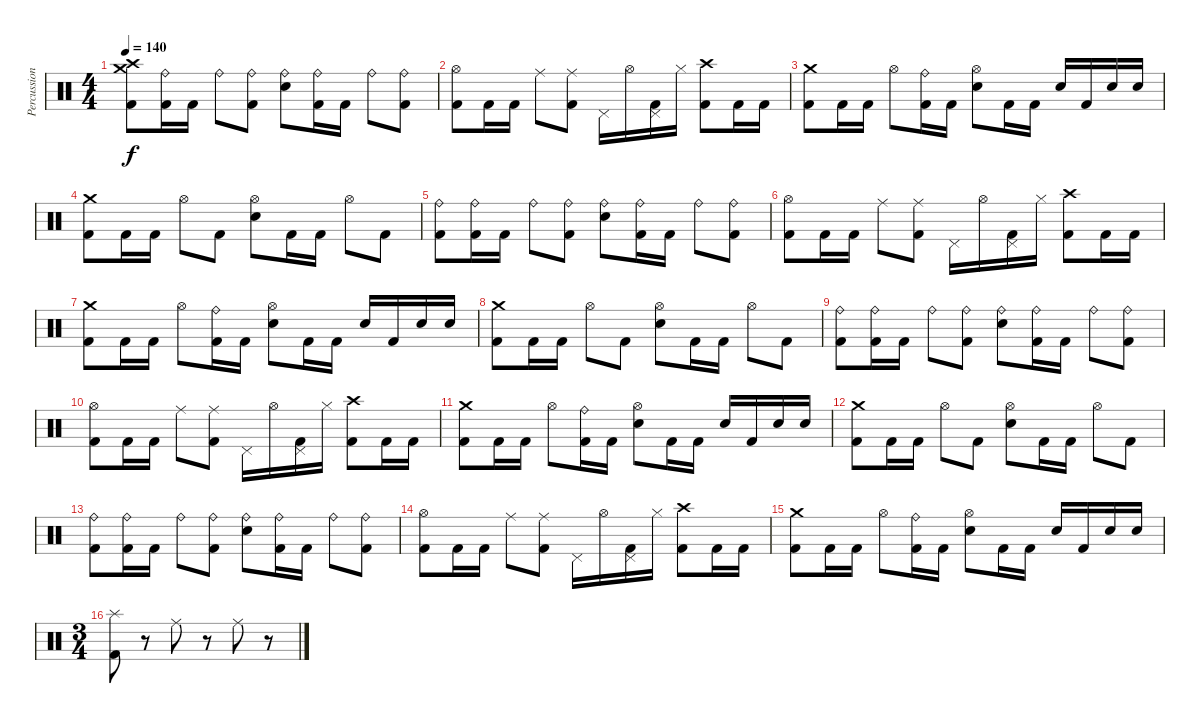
\track ("Percussion" "Percussion") {instrument percussion}
\staff {score}
\articulation defaults
\ts (4 4)
\tempo 140
\clef neutral
\ks c
("Crash high (hit)" "Crash medium (hit)" "Kick (hit) 2").8{dy f} ("Ride (bell)" "Kick (hit) 2").16 "Kick (hit) 2".16 "Ride (bell)".8 ("Ride (bell)" "Kick (hit) 2").8 ("Ride (bell)" "Electric Snare (hit)").8 ("Ride (bell)" "Kick (hit) 2").16 "Kick (hit) 2".16 "Ride (bell)".8 ("Ride (bell)" "Kick (hit) 2").8 |
("Hi-Hat (open)" "Kick (hit) 2").8 "Kick (hit) 2".16 "Kick (hit) 2".16 "Ride (middle)".8 ("Ride (middle)" "Kick (hit) 2").8 "Pedal Hi-Hat (hit)".16 "Hi-Hat (open)".16 ("Pedal Hi-Hat (hit)" "Kick (hit) 2").16 "Hi-Hat (closed)".16 ("Crash high (hit)" "Kick (hit) 2").8 "Kick (hit) 2".16 "Kick (hit) 2".16 |
("Crash medium (hit)" "Kick (hit) 2").8 "Kick (hit) 2".16 "Kick (hit) 2".16 "Hi-Hat (open)".8 ("Ride (bell)" "Kick (hit) 2").16 "Kick (hit) 2".16 ("Hi-Hat (open)" "Electric Snare (hit)").8 "Kick (hit) 2".16 "Kick (hit) 2".16 "Electric Snare (hit)".16 "Kick (hit) 2".16 "Electric Snare (hit)".16 "Electric Snare (hit)".16 |
("Crash medium (hit)" "Kick (hit) 2").8 "Kick (hit) 2".16 "Kick (hit) 2".16 "Hi-Hat (open)".8 "Kick (hit) 2".8 ("Hi-Hat (open)" "Electric Snare (hit)").8 "Kick (hit) 2".16 "Kick (hit) 2".16 "Hi-Hat (open)".8 "Kick (hit) 2".8 |
("Ride (bell)" "Kick (hit) 2").8 ("Ride (bell)" "Kick (hit) 2").16 "Kick (hit) 2".16 "Ride (bell)".8 ("Ride (bell)" "Kick (hit) 2").8 ("Ride (bell)" "Electric Snare (hit)").8 ("Ride (bell)" "Kick (hit) 2").16 "Kick (hit) 2".16 "Ride (bell)".8 ("Ride (bell)" "Kick (hit) 2").8 |
("Hi-Hat (open)" "Kick (hit) 2").8 "Kick (hit) 2".16 "Kick (hit) 2".16 "Ride (middle)".8 ("Ride (middle)" "Kick (hit) 2").8 "Pedal Hi-Hat (hit)".16 "Hi-Hat (open)".16 ("Pedal Hi-Hat (hit)" "Kick (hit) 2").16 "Hi-Hat (closed)".16 ("Crash high (hit)" "Kick (hit) 2").8 "Kick (hit) 2".16 "Kick (hit) 2".16 |
("Crash medium (hit)" "Kick (hit) 2").8 "Kick (hit) 2".16 "Kick (hit) 2".16 "Hi-Hat (open)".8 ("Ride (bell)" "Kick (hit) 2").16 "Kick (hit) 2".16 ("Hi-Hat (open)" "Electric Snare (hit)").8 "Kick (hit) 2".16 "Kick (hit) 2".16 "Electric Snare (hit)".16 "Kick (hit) 2".16 "Electric Snare (hit)".16 "Electric Snare (hit)".16 |
("Crash medium (hit)" "Kick (hit) 2").8 "Kick (hit) 2".16 "Kick (hit) 2".16 "Hi-Hat (open)".8 "Kick (hit) 2".8 ("Hi-Hat (open)" "Electric Snare (hit)").8 "Kick (hit) 2".16 "Kick (hit) 2".16 "Hi-Hat (open)".8 "Kick (hit) 2".8 |
("Ride (bell)" "Kick (hit) 2").8 ("Ride (bell)" "Kick (hit) 2").16 "Kick (hit) 2".16 "Ride (bell)".8 ("Ride (bell)" "Kick (hit) 2").8 ("Ride (bell)" "Electric Snare (hit)").8 ("Ride (bell)" "Kick (hit) 2").16 "Kick (hit) 2".16 "Ride (bell)".8 ("Ride (bell)" "Kick (hit) 2").8 |
("Hi-Hat (open)" "Kick (hit) 2").8 "Kick (hit) 2".16 "Kick (hit) 2".16 "Ride (middle)".8 ("Ride (middle)" "Kick (hit) 2").8 "Pedal Hi-Hat (hit)".16 "Hi-Hat (open)".16 ("Pedal Hi-Hat (hit)" "Kick (hit) 2").16 "Hi-Hat (closed)".16 ("Crash high (hit)" "Kick (hit) 2").8 "Kick (hit) 2".16 "Kick (hit) 2".16 |
("Crash medium (hit)" "Kick (hit) 2").8 "Kick (hit) 2".16 "Kick (hit) 2".16 "Hi-Hat (open)".8 ("Ride (bell)" "Kick (hit) 2").16 "Kick (hit) 2".16 ("Hi-Hat (open)" "Electric Snare (hit)").8 "Kick (hit) 2".16 "Kick (hit) 2".16 "Electric Snare (hit)".16 "Kick (hit) 2".16 "Electric Snare (hit)".16 "Electric Snare (hit)".16 |
("Crash medium (hit)" "Kick (hit) 2").8 "Kick (hit) 2".16 "Kick (hit) 2".16 "Hi-Hat (open)".8 "Kick (hit) 2".8 ("Hi-Hat (open)" "Electric Snare (hit)").8 "Kick (hit) 2".16 "Kick (hit) 2".16 "Hi-Hat (open)".8 "Kick (hit) 2".8 |
("Ride (bell)" "Kick (hit) 2").8 ("Ride (bell)" "Kick (hit) 2").16 "Kick (hit) 2".16 "Ride (bell)".8 ("Ride (bell)" "Kick (hit) 2").8 ("Ride (bell)" "Electric Snare (hit)").8 ("Ride (bell)" "Kick (hit) 2").16 "Kick (hit) 2".16 "Ride (bell)".8 ("Ride (bell)" "Kick (hit) 2").8 |
("Hi-Hat (open)" "Kick (hit) 2").8 "Kick (hit) 2".16 "Kick (hit) 2".16 "Ride (middle)".8 ("Ride (middle)" "Kick (hit) 2").8 "Pedal Hi-Hat (hit)".16 "Hi-Hat (open)".16 ("Pedal Hi-Hat (hit)" "Kick (hit) 2").16 "Hi-Hat (closed)".16 ("Crash high (hit)" "Kick (hit) 2").8 "Kick (hit) 2".16 "Kick (hit) 2".16 |
("Crash medium (hit)" "Kick (hit) 2").8 "Kick (hit) 2".16 "Kick (hit) 2".16 "Hi-Hat (open)".8 ("Ride (bell)" "Kick (hit) 2").16 "Kick (hit) 2".16 ("Hi-Hat (open)" "Electric Snare (hit)").8 "Kick (hit) 2".16 "Kick (hit) 2".16 "Electric Snare (hit)".16 "Kick (hit) 2".16 "Electric Snare (hit)".16 "Electric Snare (hit)".16 |
\ts (3 4)
("Splash (hit)" "Kick (hit) 2").8 r.8 "Ride (middle)".8 r.8 "Ride (middle)".8 r.8
